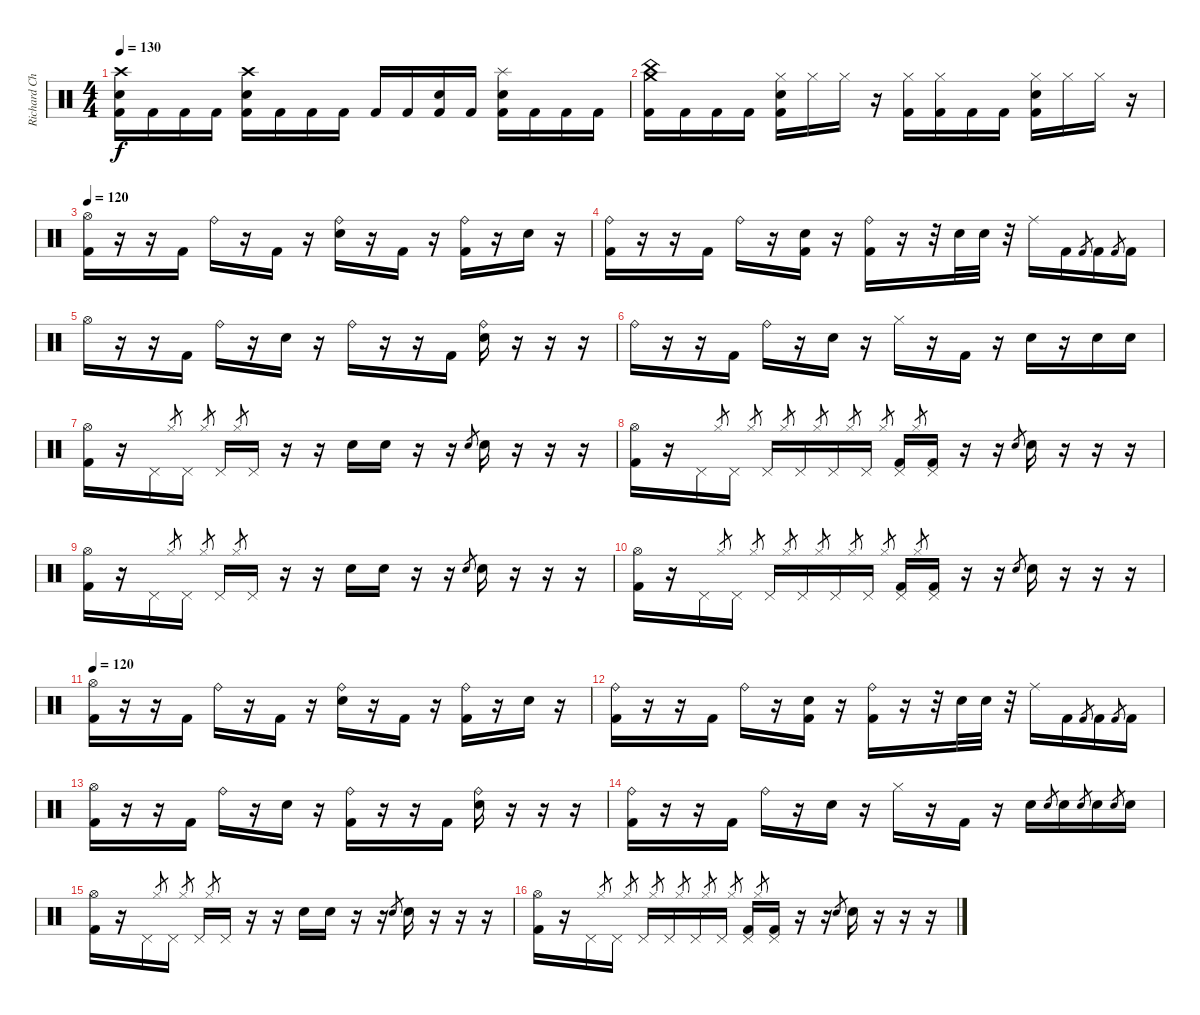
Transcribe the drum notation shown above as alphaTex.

\track ("Richard Christy" "Richard Ch") {instrument percussion}
\staff {score}
\articulation defaults
\ts (4 4)
\tempo 130
\clef neutral
\ks c
("Crash high (hit)" "Snare (hit) 2" "Kick (hit) 2").16{dy f} "Kick (hit) 2".16 "Kick (hit) 2".16 "Kick (hit) 2".16 ("Crash high (hit)" "Snare (hit) 2" "Kick (hit) 2").16 "Kick (hit) 2".16 "Kick (hit) 2".16 "Kick (hit) 2".16 "Kick (hit) 2".16 "Kick (hit) 2".16 ("Snare (hit) 2" "Kick (hit) 2").16 "Kick (hit) 2".16 ("Splash (hit)" "Snare (hit) 2" "Kick (hit) 2").16 "Kick (hit) 2".16 "Kick (hit) 2".16 "Kick (hit) 2".16 |
("Crash medium (hit)" "China (hit)" "Kick (hit) 2").16 "Kick (hit) 2".16 "Kick (hit) 2".16 "Kick (hit) 2".16 ("Hi-Hat (closed)" "Snare (hit) 2" "Kick (hit) 2").16 "Hi-Hat (closed)".16 "Hi-Hat (closed)".16 r.16 ("Hi-Hat (closed)" "Kick (hit) 2").16 ("Hi-Hat (closed)" "Kick (hit) 2").16 "Kick (hit) 2".16 "Kick (hit) 2".16 ("Hi-Hat (closed)" "Snare (hit) 2" "Kick (hit) 2").16 "Hi-Hat (closed)".16 "Hi-Hat (closed)".16 r.16 |
\tempo 120
("Hi-Hat (open)" "Kick (hit) 2").16 r.16 r.16 "Kick (hit) 2".16 "Ride (bell)".16 r.16 "Kick (hit) 2".16 r.16 ("Ride (bell)" "Snare (hit) 2").16 r.16 "Kick (hit) 2".16 r.16 ("Ride (bell)" "Kick (hit) 2").16 r.16 "Snare (hit) 2".16 r.16 |
("Ride (bell)" "Kick (hit) 2").16 r.16 r.16 "Kick (hit) 2".16 "Ride (bell)".16 r.16 ("Snare (hit) 2" "Kick (hit) 2").16 r.16 ("Ride (bell)" "Kick (hit) 2").16 r.16 r.32 "Snare (hit) 2".32 "Snare (hit) 2".32 r.32 "Ride (middle)".16 "Kick (hit) 2".16 "Kick (hit) 2".8{gr} "Kick (hit) 2".16 "Kick (hit) 2".8{gr} "Kick (hit) 2".16 |
"Hi-Hat (open)".16 r.16 r.16 "Kick (hit) 2".16 "Ride (bell)".16 r.16 "Snare (hit) 2".16 r.16 "Ride (bell)".16 r.16 r.16 "Kick (hit) 2".16 ("Ride (bell)" "Snare (hit) 2").16 r.16 r.16 r.16 |
"Ride (bell)".16 r.16 r.16 "Kick (hit) 2".16 "Ride (bell)".16 r.16 "Snare (hit) 2".16 r.16 "Hi-Hat (closed)".16 r.16 "Kick (hit) 2".16 r.16 "Snare (hit) 2".16 r.16 "Snare (hit) 2".16 "Snare (hit) 2".16 |
("Hi-Hat (open)" "Kick (hit) 2").16 r.16 "Pedal Hi-Hat (hit)".16 "Hi-Hat (closed)".8{gr} "Pedal Hi-Hat (hit)".16 "Hi-Hat (closed)".8{gr} "Pedal Hi-Hat (hit)".16 "Hi-Hat (closed)".8{gr} "Pedal Hi-Hat (hit)".16 r.16 r.16 "Snare (hit) 2".16 "Snare (hit) 2".16 r.16 r.16 "Snare (hit) 2".8{gr} "Snare (hit) 2".16 r.16 r.16 r.16 |
("Hi-Hat (open)" "Kick (hit) 2").16 r.16 "Pedal Hi-Hat (hit)".16 "Hi-Hat (closed)".8{gr} "Pedal Hi-Hat (hit)".16 "Hi-Hat (closed)".8{gr} "Pedal Hi-Hat (hit)".16 "Hi-Hat (closed)".8{gr} "Pedal Hi-Hat (hit)".16 "Hi-Hat (closed)".8{gr} "Pedal Hi-Hat (hit)".16 "Hi-Hat (closed)".8{gr} "Pedal Hi-Hat (hit)".16 "Hi-Hat (closed)".8{gr} ("Pedal Hi-Hat (hit)" "Kick (hit) 2").16 "Hi-Hat (closed)".8{gr} ("Pedal Hi-Hat (hit)" "Kick (hit) 2").16 r.16 r.16 "Snare (hit) 2".8{gr} "Snare (hit) 2".16 r.16 r.16 r.16 |
("Hi-Hat (open)" "Kick (hit) 2").16 r.16 "Pedal Hi-Hat (hit)".16 "Hi-Hat (closed)".8{gr} "Pedal Hi-Hat (hit)".16 "Hi-Hat (closed)".8{gr} "Pedal Hi-Hat (hit)".16 "Hi-Hat (closed)".8{gr} "Pedal Hi-Hat (hit)".16 r.16 r.16 "Snare (hit) 2".16 "Snare (hit) 2".16 r.16 r.16 "Snare (hit) 2".8{gr} "Snare (hit) 2".16 r.16 r.16 r.16 |
("Hi-Hat (open)" "Kick (hit) 2").16 r.16 "Pedal Hi-Hat (hit)".16 "Hi-Hat (closed)".8{gr} "Pedal Hi-Hat (hit)".16 "Hi-Hat (closed)".8{gr} "Pedal Hi-Hat (hit)".16 "Hi-Hat (closed)".8{gr} "Pedal Hi-Hat (hit)".16 "Hi-Hat (closed)".8{gr} "Pedal Hi-Hat (hit)".16 "Hi-Hat (closed)".8{gr} "Pedal Hi-Hat (hit)".16 "Hi-Hat (closed)".8{gr} ("Pedal Hi-Hat (hit)" "Kick (hit) 2").16 "Hi-Hat (closed)".8{gr} ("Pedal Hi-Hat (hit)" "Kick (hit) 2").16 r.16 r.16 "Snare (hit) 2".8{gr} "Snare (hit) 2".16 r.16 r.16 r.16 |
\tempo 120
("Hi-Hat (open)" "Kick (hit) 2").16 r.16 r.16 "Kick (hit) 2".16 "Ride (bell)".16 r.16 "Kick (hit) 2".16 r.16 ("Ride (bell)" "Snare (hit) 2").16 r.16 "Kick (hit) 2".16 r.16 ("Ride (bell)" "Kick (hit) 2").16 r.16 "Snare (hit) 2".16 r.16 |
("Ride (bell)" "Kick (hit) 2").16 r.16 r.16 "Kick (hit) 2".16 "Ride (bell)".16 r.16 ("Snare (hit) 2" "Kick (hit) 2").16 r.16 ("Ride (bell)" "Kick (hit) 2").16 r.16 r.32 "Snare (hit) 2".32 "Snare (hit) 2".32 r.32 "Ride (middle)".16 "Kick (hit) 2".16 "Kick (hit) 2".8{gr} "Kick (hit) 2".16 "Kick (hit) 2".8{gr} "Kick (hit) 2".16 |
("Hi-Hat (open)" "Kick (hit) 2").16 r.16 r.16 "Kick (hit) 2".16 "Ride (bell)".16 r.16 "Snare (hit) 2".16 r.16 ("Ride (bell)" "Kick (hit) 2").16 r.16 r.16 "Kick (hit) 2".16 ("Ride (bell)" "Snare (hit) 2").16 r.16 r.16 r.16 |
("Ride (bell)" "Kick (hit) 2").16 r.16 r.16 "Kick (hit) 2".16 "Ride (bell)".16 r.16 "Snare (hit) 2".16 r.16 "Hi-Hat (closed)".16 r.16 "Kick (hit) 2".16 r.16 "Snare (hit) 2".16 "Snare (hit) 2".8{gr} "Snare (hit) 2".16 "Snare (hit) 2".8{gr} "Snare (hit) 2".16 "Snare (hit) 2".8{gr} "Snare (hit) 2".16 |
("Hi-Hat (open)" "Kick (hit) 2").16 r.16 "Pedal Hi-Hat (hit)".16 "Hi-Hat (closed)".8{gr} "Pedal Hi-Hat (hit)".16 "Hi-Hat (closed)".8{gr} "Pedal Hi-Hat (hit)".16 "Hi-Hat (closed)".8{gr} "Pedal Hi-Hat (hit)".16 r.16 r.16 "Snare (hit) 2".16 "Snare (hit) 2".16 r.16 r.16 "Snare (hit) 2".8{gr} "Snare (hit) 2".16 r.16 r.16 r.16 |
("Hi-Hat (open)" "Kick (hit) 2").16 r.16 "Pedal Hi-Hat (hit)".16 "Hi-Hat (closed)".8{gr} "Pedal Hi-Hat (hit)".16 "Hi-Hat (closed)".8{gr} "Pedal Hi-Hat (hit)".16 "Hi-Hat (closed)".8{gr} "Pedal Hi-Hat (hit)".16 "Hi-Hat (closed)".8{gr} "Pedal Hi-Hat (hit)".16 "Hi-Hat (closed)".8{gr} "Pedal Hi-Hat (hit)".16 "Hi-Hat (closed)".8{gr} ("Pedal Hi-Hat (hit)" "Kick (hit) 2").16 "Hi-Hat (closed)".8{gr} ("Pedal Hi-Hat (hit)" "Kick (hit) 2").16 r.16 r.16 "Snare (hit) 2".8{gr} "Snare (hit) 2".16 r.16 r.16 r.16
